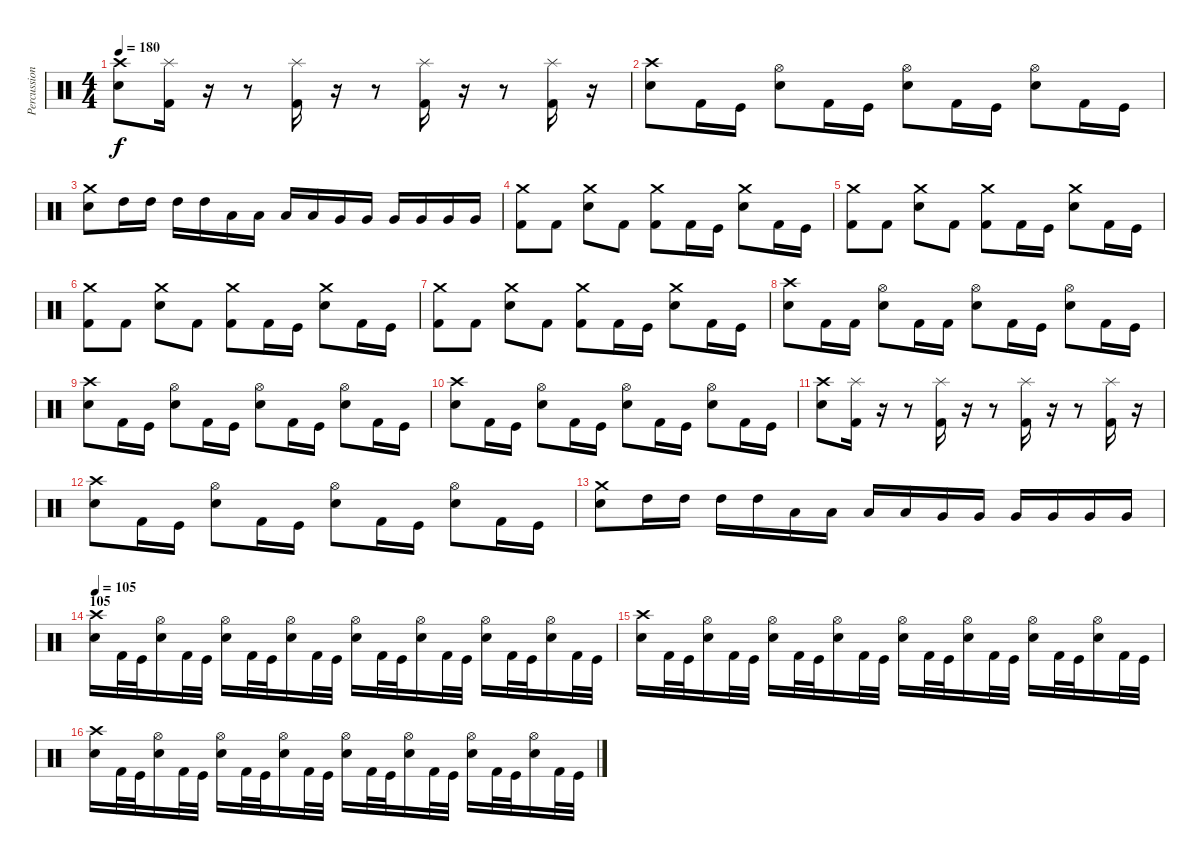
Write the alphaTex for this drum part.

\track ("Percussion" "Percussion") {instrument percussion}
\staff {score}
\articulation defaults
\ts (4 4)
\tempo 180
\clef neutral
\ks c
("Snare (hit) 2" "Crash high (hit)").8{dy f} ("Kick (hit) 2" "Splash (hit)").16 r.16 r.8 ("Kick (hit) 2" "Splash (hit)").16 r.16 r.8 ("Kick (hit) 2" "Splash (hit)").16 r.16 r.8 ("Kick (hit) 2" "Splash (hit)").16 r.16 |
("Snare (hit) 2" "Crash high (hit)").8 "Kick (hit) 2".16 "Kick (hit)".16 ("Snare (hit) 2" "Hi-Hat (open)").8 "Kick (hit) 2".16 "Kick (hit)".16 ("Snare (hit) 2" "Hi-Hat (open)").8 "Kick (hit) 2".16 "Kick (hit)".16 ("Snare (hit) 2" "Hi-Hat (open)").8 "Kick (hit) 2".16 "Kick (hit)".16 |
("Snare (hit) 2" "Crash medium (hit)").8 "High Tom (hit)".16 "High Tom (hit)".16 "High Tom (hit)".16 "High Tom (hit)".16 "Low Tom (hit)".16 "Low Tom (hit)".16 "Low Tom (hit)".16 "Low Tom (hit)".16 "Very Low Tom (hit)".16 "Very Low Tom (hit)".16 "Very Low Tom (hit)".16 "Very Low Tom (hit)".16 "Very Low Tom (hit)".16 "Very Low Tom (hit)".16 |
("Kick (hit) 2" "Crash medium (hit)").8 "Kick (hit) 2".8 ("Snare (hit) 2" "Crash medium (hit)").8 "Kick (hit) 2".8 ("Kick (hit) 2" "Crash medium (hit)").8 "Kick (hit) 2".16 "Kick (hit)".16 ("Snare (hit) 2" "Crash medium (hit)").8 "Kick (hit) 2".16 "Kick (hit)".16 |
("Kick (hit) 2" "Crash medium (hit)").8 "Kick (hit) 2".8 ("Snare (hit) 2" "Crash medium (hit)").8 "Kick (hit) 2".8 ("Kick (hit) 2" "Crash medium (hit)").8 "Kick (hit) 2".16 "Kick (hit)".16 ("Snare (hit) 2" "Crash medium (hit)").8 "Kick (hit) 2".16 "Kick (hit)".16 |
("Kick (hit) 2" "Crash medium (hit)").8 "Kick (hit) 2".8 ("Snare (hit) 2" "Crash medium (hit)").8 "Kick (hit) 2".8 ("Kick (hit) 2" "Crash medium (hit)").8 "Kick (hit) 2".16 "Kick (hit)".16 ("Snare (hit) 2" "Crash medium (hit)").8 "Kick (hit) 2".16 "Kick (hit)".16 |
("Kick (hit) 2" "Crash medium (hit)").8 "Kick (hit) 2".8 ("Snare (hit) 2" "Crash medium (hit)").8 "Kick (hit) 2".8 ("Kick (hit) 2" "Crash medium (hit)").8 "Kick (hit) 2".16 "Kick (hit)".16 ("Snare (hit) 2" "Crash medium (hit)").8 "Kick (hit) 2".16 "Kick (hit)".16 |
("Snare (hit) 2" "Crash high (hit)").8 "Kick (hit) 2".16 "Kick (hit) 2".16 ("Snare (hit) 2" "Hi-Hat (open)").8 "Kick (hit) 2".16 "Kick (hit) 2".16 ("Snare (hit) 2" "Hi-Hat (open)").8 "Kick (hit) 2".16 "Kick (hit)".16 ("Snare (hit) 2" "Hi-Hat (open)").8 "Kick (hit) 2".16 "Kick (hit)".16 |
("Snare (hit) 2" "Crash high (hit)").8 "Kick (hit) 2".16 "Kick (hit)".16 ("Snare (hit) 2" "Hi-Hat (open)").8 "Kick (hit) 2".16 "Kick (hit)".16 ("Snare (hit) 2" "Hi-Hat (open)").8 "Kick (hit) 2".16 "Kick (hit)".16 ("Snare (hit) 2" "Hi-Hat (open)").8 "Kick (hit) 2".16 "Kick (hit)".16 |
("Snare (hit) 2" "Crash high (hit)").8 "Kick (hit) 2".16 "Kick (hit)".16 ("Snare (hit) 2" "Hi-Hat (open)").8 "Kick (hit) 2".16 "Kick (hit)".16 ("Snare (hit) 2" "Hi-Hat (open)").8 "Kick (hit) 2".16 "Kick (hit)".16 ("Snare (hit) 2" "Hi-Hat (open)").8 "Kick (hit) 2".16 "Kick (hit)".16 |
("Snare (hit) 2" "Crash high (hit)").8 ("Kick (hit) 2" "Splash (hit)").16 r.16 r.8 ("Kick (hit) 2" "Splash (hit)").16 r.16 r.8 ("Kick (hit) 2" "Splash (hit)").16 r.16 r.8 ("Kick (hit) 2" "Splash (hit)").16 r.16 |
("Snare (hit) 2" "Crash high (hit)").8 "Kick (hit) 2".16 "Kick (hit)".16 ("Snare (hit) 2" "Hi-Hat (open)").8 "Kick (hit) 2".16 "Kick (hit)".16 ("Snare (hit) 2" "Hi-Hat (open)").8 "Kick (hit) 2".16 "Kick (hit)".16 ("Snare (hit) 2" "Hi-Hat (open)").8 "Kick (hit) 2".16 "Kick (hit)".16 |
("Snare (hit) 2" "Crash medium (hit)").8 "High Tom (hit)".16 "High Tom (hit)".16 "High Tom (hit)".16 "High Tom (hit)".16 "Low Tom (hit)".16 "Low Tom (hit)".16 "Low Tom (hit)".16 "Low Tom (hit)".16 "Very Low Tom (hit)".16 "Very Low Tom (hit)".16 "Very Low Tom (hit)".16 "Very Low Tom (hit)".16 "Very Low Tom (hit)".16 "Very Low Tom (hit)".16 |
\section ("" "105")
\tempo 105
("Snare (hit) 2" "Crash high (hit)").16 "Kick (hit) 2".32 "Kick (hit)".32 ("Snare (hit) 2" "Hi-Hat (open)").16 "Kick (hit) 2".32 "Kick (hit)".32 ("Snare (hit) 2" "Hi-Hat (open)").16 "Kick (hit) 2".32 "Kick (hit)".32 ("Snare (hit) 2" "Hi-Hat (open)").16 "Kick (hit) 2".32 "Kick (hit)".32 ("Snare (hit) 2" "Hi-Hat (open)").16 "Kick (hit) 2".32 "Kick (hit)".32 ("Snare (hit) 2" "Hi-Hat (open)").16 "Kick (hit) 2".32 "Kick (hit)".32 ("Snare (hit) 2" "Hi-Hat (open)").16 "Kick (hit) 2".32 "Kick (hit)".32 ("Snare (hit) 2" "Hi-Hat (open)").16 "Kick (hit) 2".32 "Kick (hit)".32 |
("Snare (hit) 2" "Crash high (hit)").16 "Kick (hit) 2".32 "Kick (hit)".32 ("Snare (hit) 2" "Hi-Hat (open)").16 "Kick (hit) 2".32 "Kick (hit)".32 ("Snare (hit) 2" "Hi-Hat (open)").16 "Kick (hit) 2".32 "Kick (hit)".32 ("Snare (hit) 2" "Hi-Hat (open)").16 "Kick (hit) 2".32 "Kick (hit)".32 ("Snare (hit) 2" "Hi-Hat (open)").16 "Kick (hit) 2".32 "Kick (hit)".32 ("Snare (hit) 2" "Hi-Hat (open)").16 "Kick (hit) 2".32 "Kick (hit)".32 ("Snare (hit) 2" "Hi-Hat (open)").16 "Kick (hit) 2".32 "Kick (hit)".32 ("Snare (hit) 2" "Hi-Hat (open)").16 "Kick (hit) 2".32 "Kick (hit)".32 |
("Snare (hit) 2" "Crash high (hit)").16 "Kick (hit) 2".32 "Kick (hit)".32 ("Snare (hit) 2" "Hi-Hat (open)").16 "Kick (hit) 2".32 "Kick (hit)".32 ("Snare (hit) 2" "Hi-Hat (open)").16 "Kick (hit) 2".32 "Kick (hit)".32 ("Snare (hit) 2" "Hi-Hat (open)").16 "Kick (hit) 2".32 "Kick (hit)".32 ("Snare (hit) 2" "Hi-Hat (open)").16 "Kick (hit) 2".32 "Kick (hit)".32 ("Snare (hit) 2" "Hi-Hat (open)").16 "Kick (hit) 2".32 "Kick (hit)".32 ("Snare (hit) 2" "Hi-Hat (open)").16 "Kick (hit) 2".32 "Kick (hit)".32 ("Snare (hit) 2" "Hi-Hat (open)").16 "Kick (hit) 2".32 "Kick (hit)".32
